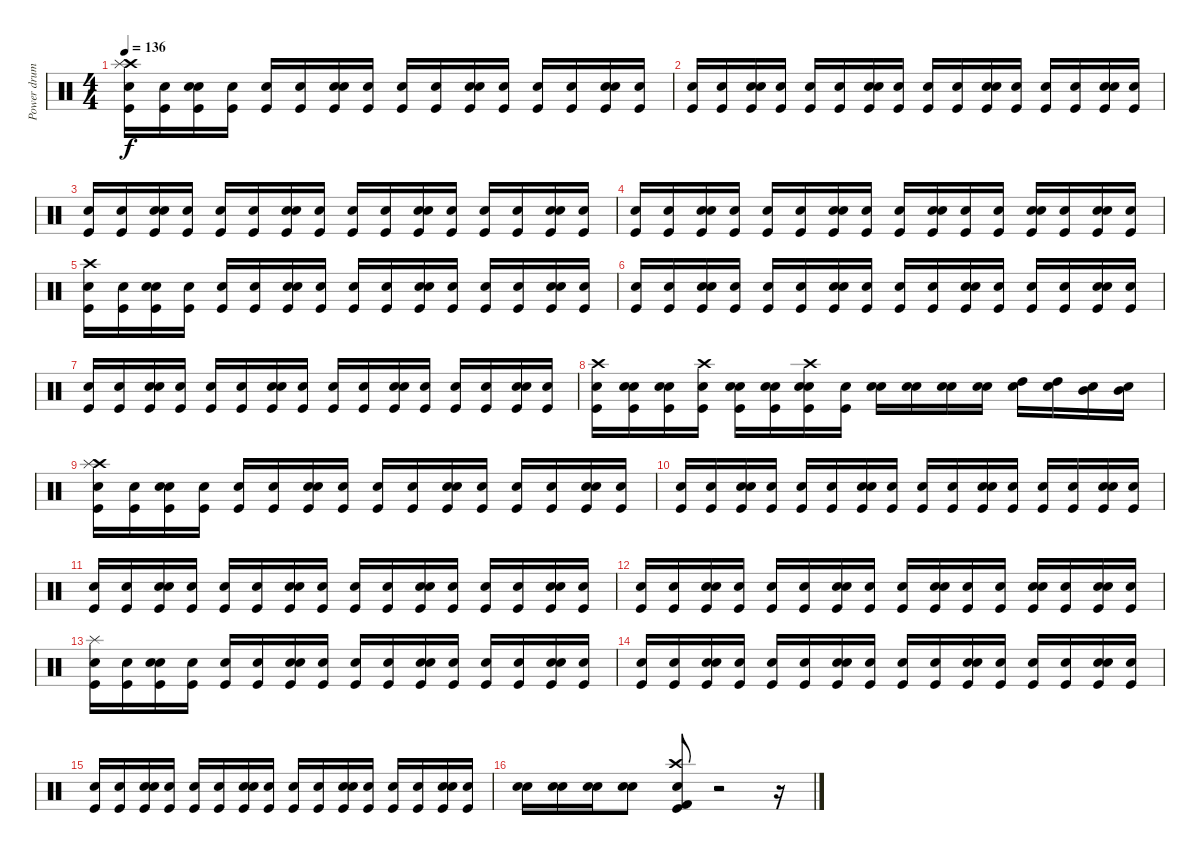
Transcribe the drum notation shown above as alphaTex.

\track ("Power drums" "Power drum") {instrument percussion}
\staff {score}
\articulation defaults
\ts (4 4)
\tempo 136
\clef neutral
\ks c
("Snare (hit)" "Kick (hit)" "Crash high (hit)" "Splash (hit)").16{dy f} ("Snare (hit)" "Kick (hit)").16 ("Snare (hit)" "Kick (hit)" "Snare (hit) 2").16 ("Snare (hit)" "Kick (hit)").16 ("Snare (hit)" "Kick (hit)").16 ("Snare (hit)" "Kick (hit)").16 ("Snare (hit)" "Kick (hit)" "Snare (hit) 2").16 ("Snare (hit)" "Kick (hit)").16 ("Snare (hit)" "Kick (hit)").16 ("Snare (hit)" "Kick (hit)").16 ("Snare (hit)" "Kick (hit)" "Snare (hit) 2").16 ("Snare (hit)" "Kick (hit)").16 ("Snare (hit)" "Kick (hit)").16 ("Snare (hit)" "Kick (hit)").16 ("Snare (hit)" "Kick (hit)" "Snare (hit) 2").16 ("Snare (hit)" "Kick (hit)").16 |
("Snare (hit)" "Kick (hit)").16 ("Snare (hit)" "Kick (hit)").16 ("Snare (hit)" "Kick (hit)" "Snare (hit) 2").16 ("Snare (hit)" "Kick (hit)").16 ("Snare (hit)" "Kick (hit)").16 ("Snare (hit)" "Kick (hit)").16 ("Snare (hit)" "Kick (hit)" "Snare (hit) 2").16 ("Snare (hit)" "Kick (hit)").16 ("Snare (hit)" "Kick (hit)").16 ("Snare (hit)" "Kick (hit)").16 ("Snare (hit)" "Kick (hit)" "Snare (hit) 2").16 ("Snare (hit)" "Kick (hit)").16 ("Snare (hit)" "Kick (hit)").16 ("Snare (hit)" "Kick (hit)").16 ("Snare (hit)" "Kick (hit)" "Snare (hit) 2").16 ("Snare (hit)" "Kick (hit)").16 |
("Snare (hit)" "Kick (hit)").16 ("Snare (hit)" "Kick (hit)").16 ("Snare (hit)" "Kick (hit)" "Snare (hit) 2").16 ("Snare (hit)" "Kick (hit)").16 ("Snare (hit)" "Kick (hit)").16 ("Snare (hit)" "Kick (hit)").16 ("Snare (hit)" "Kick (hit)" "Snare (hit) 2").16 ("Snare (hit)" "Kick (hit)").16 ("Snare (hit)" "Kick (hit)").16 ("Snare (hit)" "Kick (hit)").16 ("Snare (hit)" "Kick (hit)" "Snare (hit) 2").16 ("Snare (hit)" "Kick (hit)").16 ("Snare (hit)" "Kick (hit)").16 ("Snare (hit)" "Kick (hit)").16 ("Snare (hit)" "Kick (hit)" "Snare (hit) 2").16 ("Snare (hit)" "Kick (hit)").16 |
("Snare (hit)" "Kick (hit)").16 ("Snare (hit)" "Kick (hit)").16 ("Snare (hit)" "Kick (hit)" "Snare (hit) 2").16 ("Snare (hit)" "Kick (hit)").16 ("Snare (hit)" "Kick (hit)").16 ("Snare (hit)" "Kick (hit)").16 ("Snare (hit)" "Kick (hit)" "Snare (hit) 2").16 ("Snare (hit)" "Kick (hit)").16 ("Snare (hit)" "Kick (hit)").16 ("Snare (hit)" "Kick (hit)" "Snare (hit) 2").16 ("Snare (hit)" "Kick (hit)").16 ("Snare (hit)" "Kick (hit)").16 ("Snare (hit)" "Kick (hit)" "Snare (hit) 2").16 ("Snare (hit)" "Kick (hit)").16 ("Snare (hit)" "Kick (hit)" "Snare (hit) 2").16 ("Snare (hit)" "Kick (hit)").16 |
("Snare (hit)" "Kick (hit)" "Crash high (hit)").16 ("Snare (hit)" "Kick (hit)").16 ("Snare (hit)" "Kick (hit)" "Snare (hit) 2").16 ("Snare (hit)" "Kick (hit)").16 ("Snare (hit)" "Kick (hit)").16 ("Snare (hit)" "Kick (hit)").16 ("Snare (hit)" "Kick (hit)" "Snare (hit) 2").16 ("Snare (hit)" "Kick (hit)").16 ("Snare (hit)" "Kick (hit)").16 ("Snare (hit)" "Kick (hit)").16 ("Snare (hit)" "Kick (hit)" "Snare (hit) 2").16 ("Snare (hit)" "Kick (hit)").16 ("Snare (hit)" "Kick (hit)").16 ("Snare (hit)" "Kick (hit)").16 ("Snare (hit)" "Kick (hit)" "Snare (hit) 2").16 ("Snare (hit)" "Kick (hit)").16 |
("Snare (hit)" "Kick (hit)").16 ("Snare (hit)" "Kick (hit)").16 ("Snare (hit)" "Kick (hit)" "Snare (hit) 2").16 ("Snare (hit)" "Kick (hit)").16 ("Snare (hit)" "Kick (hit)").16 ("Snare (hit)" "Kick (hit)").16 ("Snare (hit)" "Kick (hit)" "Snare (hit) 2").16 ("Snare (hit)" "Kick (hit)").16 ("Snare (hit)" "Kick (hit)").16 ("Snare (hit)" "Kick (hit)").16 ("Snare (hit)" "Kick (hit)" "Snare (hit) 2").16 ("Snare (hit)" "Kick (hit)").16 ("Snare (hit)" "Kick (hit)").16 ("Snare (hit)" "Kick (hit)").16 ("Snare (hit)" "Kick (hit)" "Snare (hit) 2").16 ("Snare (hit)" "Kick (hit)").16 |
("Snare (hit)" "Kick (hit)").16 ("Snare (hit)" "Kick (hit)").16 ("Snare (hit)" "Kick (hit)" "Snare (hit) 2").16 ("Snare (hit)" "Kick (hit)").16 ("Snare (hit)" "Kick (hit)").16 ("Snare (hit)" "Kick (hit)").16 ("Snare (hit)" "Kick (hit)" "Snare (hit) 2").16 ("Snare (hit)" "Kick (hit)").16 ("Snare (hit)" "Kick (hit)").16 ("Snare (hit)" "Kick (hit)").16 ("Snare (hit)" "Kick (hit)" "Snare (hit) 2").16 ("Snare (hit)" "Kick (hit)").16 ("Snare (hit)" "Kick (hit)").16 ("Snare (hit)" "Kick (hit)").16 ("Snare (hit)" "Kick (hit)" "Snare (hit) 2").16 ("Snare (hit)" "Kick (hit)").16 |
("Snare (hit)" "Kick (hit)" "Crash high (hit)").16 ("Snare (hit)" "Kick (hit)" "Snare (hit) 2").16 ("Snare (hit)" "Kick (hit)" "Snare (hit) 2").16 ("Snare (hit)" "Kick (hit)" "Crash high (hit)").16 ("Snare (hit)" "Kick (hit)" "Snare (hit) 2").16 ("Snare (hit)" "Kick (hit)" "Snare (hit) 2").16 ("Snare (hit)" "Kick (hit)" "Snare (hit) 2" "Crash high (hit)").16 ("Snare (hit)" "Kick (hit)").16 ("Snare (hit)" "Snare (hit) 2").16 ("Snare (hit)" "Snare (hit) 2").16 ("Snare (hit)" "Snare (hit) 2").16 ("Snare (hit)" "Snare (hit) 2").16 ("Snare (hit)" "High Tom (hit)").16 ("Snare (hit)" "High Tom (hit)").16 ("Snare (hit)" "Mid Tom (hit)").16 ("Snare (hit)" "Mid Tom (hit)").16 |
("Snare (hit)" "Kick (hit)" "Crash high (hit)" "Splash (hit)").16 ("Snare (hit)" "Kick (hit)").16 ("Snare (hit)" "Kick (hit)" "Snare (hit) 2").16 ("Snare (hit)" "Kick (hit)").16 ("Snare (hit)" "Kick (hit)").16 ("Snare (hit)" "Kick (hit)").16 ("Snare (hit)" "Kick (hit)" "Snare (hit) 2").16 ("Snare (hit)" "Kick (hit)").16 ("Snare (hit)" "Kick (hit)").16 ("Snare (hit)" "Kick (hit)").16 ("Snare (hit)" "Kick (hit)" "Snare (hit) 2").16 ("Snare (hit)" "Kick (hit)").16 ("Snare (hit)" "Kick (hit)").16 ("Snare (hit)" "Kick (hit)").16 ("Snare (hit)" "Kick (hit)" "Snare (hit) 2").16 ("Snare (hit)" "Kick (hit)").16 |
("Snare (hit)" "Kick (hit)").16 ("Snare (hit)" "Kick (hit)").16 ("Snare (hit)" "Kick (hit)" "Snare (hit) 2").16 ("Snare (hit)" "Kick (hit)").16 ("Snare (hit)" "Kick (hit)").16 ("Snare (hit)" "Kick (hit)").16 ("Snare (hit)" "Kick (hit)" "Snare (hit) 2").16 ("Snare (hit)" "Kick (hit)").16 ("Snare (hit)" "Kick (hit)").16 ("Snare (hit)" "Kick (hit)").16 ("Snare (hit)" "Kick (hit)" "Snare (hit) 2").16 ("Snare (hit)" "Kick (hit)").16 ("Snare (hit)" "Kick (hit)").16 ("Snare (hit)" "Kick (hit)").16 ("Snare (hit)" "Kick (hit)" "Snare (hit) 2").16 ("Snare (hit)" "Kick (hit)").16 |
("Snare (hit)" "Kick (hit)").16 ("Snare (hit)" "Kick (hit)").16 ("Snare (hit)" "Kick (hit)" "Snare (hit) 2").16 ("Snare (hit)" "Kick (hit)").16 ("Snare (hit)" "Kick (hit)").16 ("Snare (hit)" "Kick (hit)").16 ("Snare (hit)" "Kick (hit)" "Snare (hit) 2").16 ("Snare (hit)" "Kick (hit)").16 ("Snare (hit)" "Kick (hit)").16 ("Snare (hit)" "Kick (hit)").16 ("Snare (hit)" "Kick (hit)" "Snare (hit) 2").16 ("Snare (hit)" "Kick (hit)").16 ("Snare (hit)" "Kick (hit)").16 ("Snare (hit)" "Kick (hit)").16 ("Snare (hit)" "Kick (hit)" "Snare (hit) 2").16 ("Snare (hit)" "Kick (hit)").16 |
("Snare (hit)" "Kick (hit)").16 ("Snare (hit)" "Kick (hit)").16 ("Snare (hit)" "Kick (hit)" "Snare (hit) 2").16 ("Snare (hit)" "Kick (hit)").16 ("Snare (hit)" "Kick (hit)").16 ("Snare (hit)" "Kick (hit)").16 ("Snare (hit)" "Kick (hit)" "Snare (hit) 2").16 ("Snare (hit)" "Kick (hit)").16 ("Snare (hit)" "Kick (hit)").16 ("Snare (hit)" "Kick (hit)" "Snare (hit) 2").16 ("Snare (hit)" "Kick (hit)").16 ("Snare (hit)" "Kick (hit)").16 ("Snare (hit)" "Kick (hit)" "Snare (hit) 2").16 ("Snare (hit)" "Kick (hit)").16 ("Snare (hit)" "Kick (hit)" "Snare (hit) 2").16 ("Snare (hit)" "Kick (hit)").16 |
("Snare (hit)" "Kick (hit)" "Splash (hit)").16 ("Snare (hit)" "Kick (hit)").16 ("Snare (hit)" "Kick (hit)" "Snare (hit) 2").16 ("Snare (hit)" "Kick (hit)").16 ("Snare (hit)" "Kick (hit)").16 ("Snare (hit)" "Kick (hit)").16 ("Snare (hit)" "Kick (hit)" "Snare (hit) 2").16 ("Snare (hit)" "Kick (hit)").16 ("Snare (hit)" "Kick (hit)").16 ("Snare (hit)" "Kick (hit)").16 ("Snare (hit)" "Kick (hit)" "Snare (hit) 2").16 ("Snare (hit)" "Kick (hit)").16 ("Snare (hit)" "Kick (hit)").16 ("Snare (hit)" "Kick (hit)").16 ("Snare (hit)" "Kick (hit)" "Snare (hit) 2").16 ("Snare (hit)" "Kick (hit)").16 |
("Snare (hit)" "Kick (hit)").16 ("Snare (hit)" "Kick (hit)").16 ("Snare (hit)" "Kick (hit)" "Snare (hit) 2").16 ("Snare (hit)" "Kick (hit)").16 ("Snare (hit)" "Kick (hit)").16 ("Snare (hit)" "Kick (hit)").16 ("Snare (hit)" "Kick (hit)" "Snare (hit) 2").16 ("Snare (hit)" "Kick (hit)").16 ("Snare (hit)" "Kick (hit)").16 ("Snare (hit)" "Kick (hit)").16 ("Snare (hit)" "Kick (hit)" "Snare (hit) 2").16 ("Snare (hit)" "Kick (hit)").16 ("Snare (hit)" "Kick (hit)").16 ("Snare (hit)" "Kick (hit)").16 ("Snare (hit)" "Kick (hit)" "Snare (hit) 2").16 ("Snare (hit)" "Kick (hit)").16 |
("Snare (hit)" "Kick (hit)").16 ("Snare (hit)" "Kick (hit)").16 ("Snare (hit)" "Kick (hit)" "Snare (hit) 2").16 ("Snare (hit)" "Kick (hit)").16 ("Snare (hit)" "Kick (hit)").16 ("Snare (hit)" "Kick (hit)").16 ("Snare (hit)" "Kick (hit)" "Snare (hit) 2").16 ("Snare (hit)" "Kick (hit)").16 ("Snare (hit)" "Kick (hit)").16 ("Snare (hit)" "Kick (hit)").16 ("Snare (hit)" "Kick (hit)" "Snare (hit) 2").16 ("Snare (hit)" "Kick (hit)").16 ("Snare (hit)" "Kick (hit)").16 ("Snare (hit)" "Kick (hit)").16 ("Snare (hit)" "Kick (hit)" "Snare (hit) 2").16 ("Snare (hit)" "Kick (hit)").16 |
("Snare (hit)" "Electric Snare (hit)").16 ("Snare (hit)" "Electric Snare (hit)").16 ("Snare (hit)" "Electric Snare (hit)").16 ("Snare (hit)" "Electric Snare (hit)").8 ("Snare (hit)" "Kick (hit)" "Kick (hit) 2" "Crash high (hit)").8 r.2 r.16
